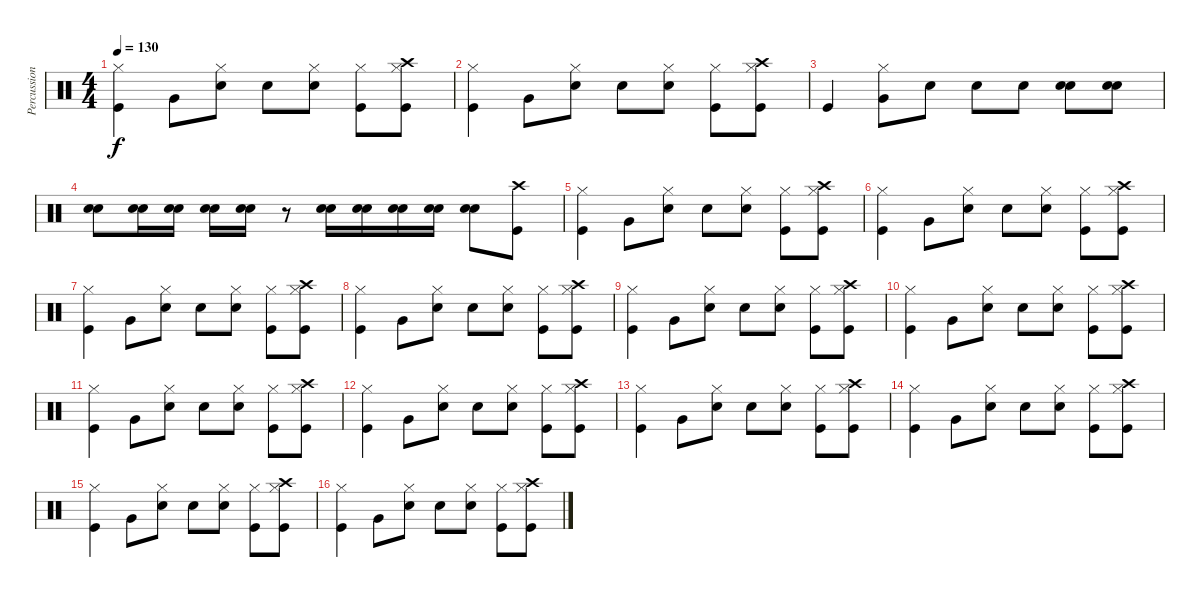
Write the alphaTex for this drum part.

\track ("Percussion" "Percussion") {instrument percussion}
\staff {score}
\articulation defaults
\ts (4 4)
\tempo 130
\clef neutral
\ks c
("Kick (hit)" "Hi-Hat (closed)").4{dy f} "Very Low Tom (hit)".8 ("Snare (hit) 2" "Hi-Hat (closed)").8 "Snare (hit) 2".8 ("Snare (hit) 2" "Hi-Hat (closed)").8 ("Kick (hit)" "Hi-Hat (closed)").8 ("Kick (hit)" "Crash high (hit)" "Hi-Hat (closed)").8 |
("Kick (hit)" "Hi-Hat (closed)").4 "Very Low Tom (hit)".8 ("Snare (hit) 2" "Hi-Hat (closed)").8 "Snare (hit) 2".8 ("Snare (hit) 2" "Hi-Hat (closed)").8 ("Kick (hit)" "Hi-Hat (closed)").8 ("Kick (hit)" "Crash high (hit)" "Hi-Hat (closed)").8 |
"Kick (hit)".4 ("Very Low Tom (hit)" "Hi-Hat (closed)").8 "Snare (hit) 2".8 "Snare (hit) 2".8 "Snare (hit) 2".8 ("Snare (hit) 2" "Snare (hit) 2").8 ("Snare (hit) 2" "Snare (hit) 2").8 |
("Snare (hit) 2" "Snare (hit) 2").8 ("Snare (hit) 2" "Snare (hit) 2").16 ("Snare (hit) 2" "Snare (hit) 2").16 ("Snare (hit) 2" "Snare (hit) 2").16 ("Snare (hit) 2" "Snare (hit) 2").16 r.8 ("Snare (hit) 2" "Snare (hit) 2").16 ("Snare (hit) 2" "Snare (hit) 2").16 ("Snare (hit) 2" "Snare (hit) 2").16 ("Snare (hit) 2" "Snare (hit) 2").16 ("Snare (hit) 2" "Snare (hit) 2").8 ("Crash high (hit)" "Kick (hit)").8 |
("Kick (hit)" "Hi-Hat (closed)").4 "Very Low Tom (hit)".8 ("Snare (hit) 2" "Hi-Hat (closed)").8 "Snare (hit) 2".8 ("Snare (hit) 2" "Hi-Hat (closed)").8 ("Kick (hit)" "Hi-Hat (closed)").8 ("Kick (hit)" "Crash high (hit)" "Hi-Hat (closed)").8 |
("Kick (hit)" "Hi-Hat (closed)").4 "Very Low Tom (hit)".8 ("Snare (hit) 2" "Hi-Hat (closed)").8 "Snare (hit) 2".8 ("Snare (hit) 2" "Hi-Hat (closed)").8 ("Kick (hit)" "Hi-Hat (closed)").8 ("Kick (hit)" "Crash high (hit)" "Hi-Hat (closed)").8 |
("Kick (hit)" "Hi-Hat (closed)").4 "Very Low Tom (hit)".8 ("Snare (hit) 2" "Hi-Hat (closed)").8 "Snare (hit) 2".8 ("Snare (hit) 2" "Hi-Hat (closed)").8 ("Kick (hit)" "Hi-Hat (closed)").8 ("Kick (hit)" "Crash high (hit)" "Hi-Hat (closed)").8 |
("Kick (hit)" "Hi-Hat (closed)").4 "Very Low Tom (hit)".8 ("Snare (hit) 2" "Hi-Hat (closed)").8 "Snare (hit) 2".8 ("Snare (hit) 2" "Hi-Hat (closed)").8 ("Kick (hit)" "Hi-Hat (closed)").8 ("Kick (hit)" "Crash high (hit)" "Hi-Hat (closed)").8 |
("Kick (hit)" "Hi-Hat (closed)").4 "Very Low Tom (hit)".8 ("Snare (hit) 2" "Hi-Hat (closed)").8 "Snare (hit) 2".8 ("Snare (hit) 2" "Hi-Hat (closed)").8 ("Kick (hit)" "Hi-Hat (closed)").8 ("Kick (hit)" "Crash high (hit)" "Hi-Hat (closed)").8 |
("Kick (hit)" "Hi-Hat (closed)").4 "Very Low Tom (hit)".8 ("Snare (hit) 2" "Hi-Hat (closed)").8 "Snare (hit) 2".8 ("Snare (hit) 2" "Hi-Hat (closed)").8 ("Kick (hit)" "Hi-Hat (closed)").8 ("Kick (hit)" "Crash high (hit)" "Hi-Hat (closed)").8 |
("Kick (hit)" "Hi-Hat (closed)").4 "Very Low Tom (hit)".8 ("Snare (hit) 2" "Hi-Hat (closed)").8 "Snare (hit) 2".8 ("Snare (hit) 2" "Hi-Hat (closed)").8 ("Kick (hit)" "Hi-Hat (closed)").8 ("Kick (hit)" "Crash high (hit)" "Hi-Hat (closed)").8 |
("Kick (hit)" "Hi-Hat (closed)").4 "Very Low Tom (hit)".8 ("Snare (hit) 2" "Hi-Hat (closed)").8 "Snare (hit) 2".8 ("Snare (hit) 2" "Hi-Hat (closed)").8 ("Kick (hit)" "Hi-Hat (closed)").8 ("Kick (hit)" "Crash high (hit)" "Hi-Hat (closed)").8 |
("Kick (hit)" "Hi-Hat (closed)").4 "Very Low Tom (hit)".8 ("Snare (hit) 2" "Hi-Hat (closed)").8 "Snare (hit) 2".8 ("Snare (hit) 2" "Hi-Hat (closed)").8 ("Kick (hit)" "Hi-Hat (closed)").8 ("Kick (hit)" "Crash high (hit)" "Hi-Hat (closed)").8 |
("Kick (hit)" "Hi-Hat (closed)").4 "Very Low Tom (hit)".8 ("Snare (hit) 2" "Hi-Hat (closed)").8 "Snare (hit) 2".8 ("Snare (hit) 2" "Hi-Hat (closed)").8 ("Kick (hit)" "Hi-Hat (closed)").8 ("Kick (hit)" "Crash high (hit)" "Hi-Hat (closed)").8 |
("Kick (hit)" "Hi-Hat (closed)").4 "Very Low Tom (hit)".8 ("Snare (hit) 2" "Hi-Hat (closed)").8 "Snare (hit) 2".8 ("Snare (hit) 2" "Hi-Hat (closed)").8 ("Kick (hit)" "Hi-Hat (closed)").8 ("Kick (hit)" "Crash high (hit)" "Hi-Hat (closed)").8 |
("Kick (hit)" "Hi-Hat (closed)").4 "Very Low Tom (hit)".8 ("Snare (hit) 2" "Hi-Hat (closed)").8 "Snare (hit) 2".8 ("Snare (hit) 2" "Hi-Hat (closed)").8 ("Kick (hit)" "Hi-Hat (closed)").8 ("Kick (hit)" "Crash high (hit)" "Hi-Hat (closed)").8
